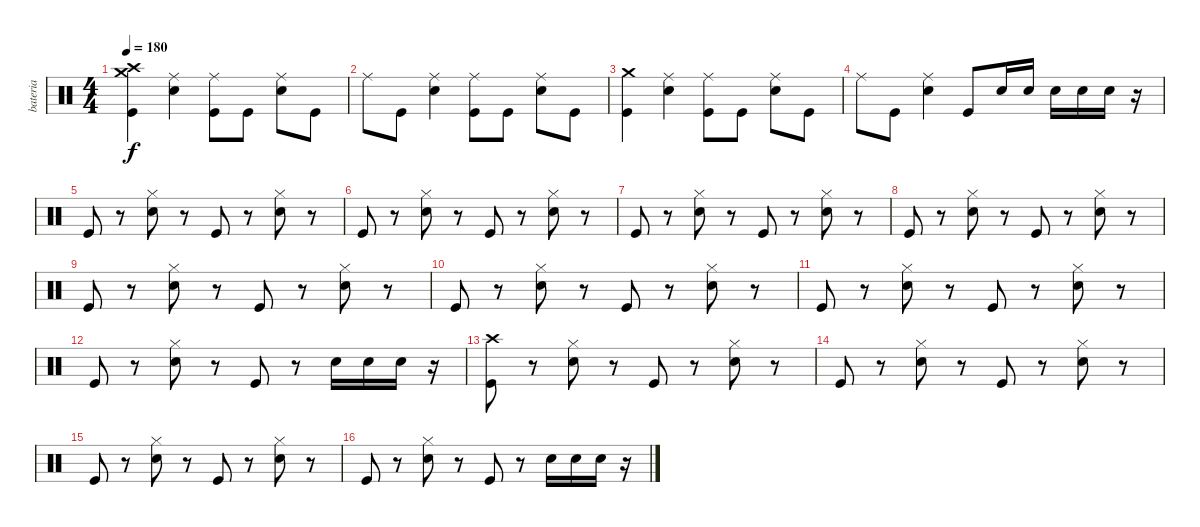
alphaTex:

\track ("bateria" "bateria") {instrument percussion}
\staff {score}
\articulation defaults
\ts (4 4)
\tempo 180
\clef neutral
\ks c
("Crash medium (hit)" "Crash high (hit)" "Kick (hit)").4{dy f} ("Ride (middle)" "Electric Snare (hit)").4 ("Ride (middle)" "Kick (hit)").8 "Kick (hit)".8 ("Ride (middle)" "Electric Snare (hit)").8 "Kick (hit)".8 |
"Ride (middle)".8 "Kick (hit)".8 ("Ride (middle)" "Electric Snare (hit)").4 ("Ride (middle)" "Kick (hit)").8 "Kick (hit)".8 ("Ride (middle)" "Electric Snare (hit)").8 "Kick (hit)".8 |
("Crash medium (hit)" "Kick (hit)").4 ("Ride (middle)" "Electric Snare (hit)").4 ("Ride (middle)" "Kick (hit)").8 "Kick (hit)".8 ("Ride (middle)" "Electric Snare (hit)").8 "Kick (hit)".8 |
"Ride (middle)".8 "Kick (hit)".8 ("Ride (middle)" "Electric Snare (hit)").4 "Kick (hit)".8 "Electric Snare (hit)".16 "Electric Snare (hit)".16 "Electric Snare (hit)".16 "Electric Snare (hit)".16 "Electric Snare (hit)".16 r.16 |
"Kick (hit)".8 r.8 ("Hi-Hat (closed)" "Electric Snare (hit)").8 r.8 "Kick (hit)".8 r.8 ("Hi-Hat (closed)" "Electric Snare (hit)").8 r.8 |
"Kick (hit)".8 r.8 ("Hi-Hat (closed)" "Electric Snare (hit)").8 r.8 "Kick (hit)".8 r.8 ("Hi-Hat (closed)" "Electric Snare (hit)").8 r.8 |
"Kick (hit)".8 r.8 ("Hi-Hat (closed)" "Electric Snare (hit)").8 r.8 "Kick (hit)".8 r.8 ("Hi-Hat (closed)" "Electric Snare (hit)").8 r.8 |
"Kick (hit)".8 r.8 ("Hi-Hat (closed)" "Electric Snare (hit)").8 r.8 "Kick (hit)".8 r.8 ("Hi-Hat (closed)" "Electric Snare (hit)").8 r.8 |
"Kick (hit)".8 r.8 ("Hi-Hat (closed)" "Electric Snare (hit)").8 r.8 "Kick (hit)".8 r.8 ("Hi-Hat (closed)" "Electric Snare (hit)").8 r.8 |
"Kick (hit)".8 r.8 ("Hi-Hat (closed)" "Electric Snare (hit)").8 r.8 "Kick (hit)".8 r.8 ("Hi-Hat (closed)" "Electric Snare (hit)").8 r.8 |
"Kick (hit)".8 r.8 ("Hi-Hat (closed)" "Electric Snare (hit)").8 r.8 "Kick (hit)".8 r.8 ("Hi-Hat (closed)" "Electric Snare (hit)").8 r.8 |
"Kick (hit)".8 r.8 ("Hi-Hat (closed)" "Electric Snare (hit)").8 r.8 "Kick (hit)".8 r.8 "Electric Snare (hit)".16 "Electric Snare (hit)".16 "Electric Snare (hit)".16 r.16 |
("Crash high (hit)" "Kick (hit)").8 r.8 ("Hi-Hat (closed)" "Electric Snare (hit)").8 r.8 "Kick (hit)".8 r.8 ("Hi-Hat (closed)" "Electric Snare (hit)").8 r.8 |
"Kick (hit)".8 r.8 ("Hi-Hat (closed)" "Electric Snare (hit)").8 r.8 "Kick (hit)".8 r.8 ("Hi-Hat (closed)" "Electric Snare (hit)").8 r.8 |
"Kick (hit)".8 r.8 ("Hi-Hat (closed)" "Electric Snare (hit)").8 r.8 "Kick (hit)".8 r.8 ("Hi-Hat (closed)" "Electric Snare (hit)").8 r.8 |
"Kick (hit)".8 r.8 ("Hi-Hat (closed)" "Electric Snare (hit)").8 r.8 "Kick (hit)".8 r.8 "Electric Snare (hit)".16 "Electric Snare (hit)".16 "Electric Snare (hit)".16 r.16
